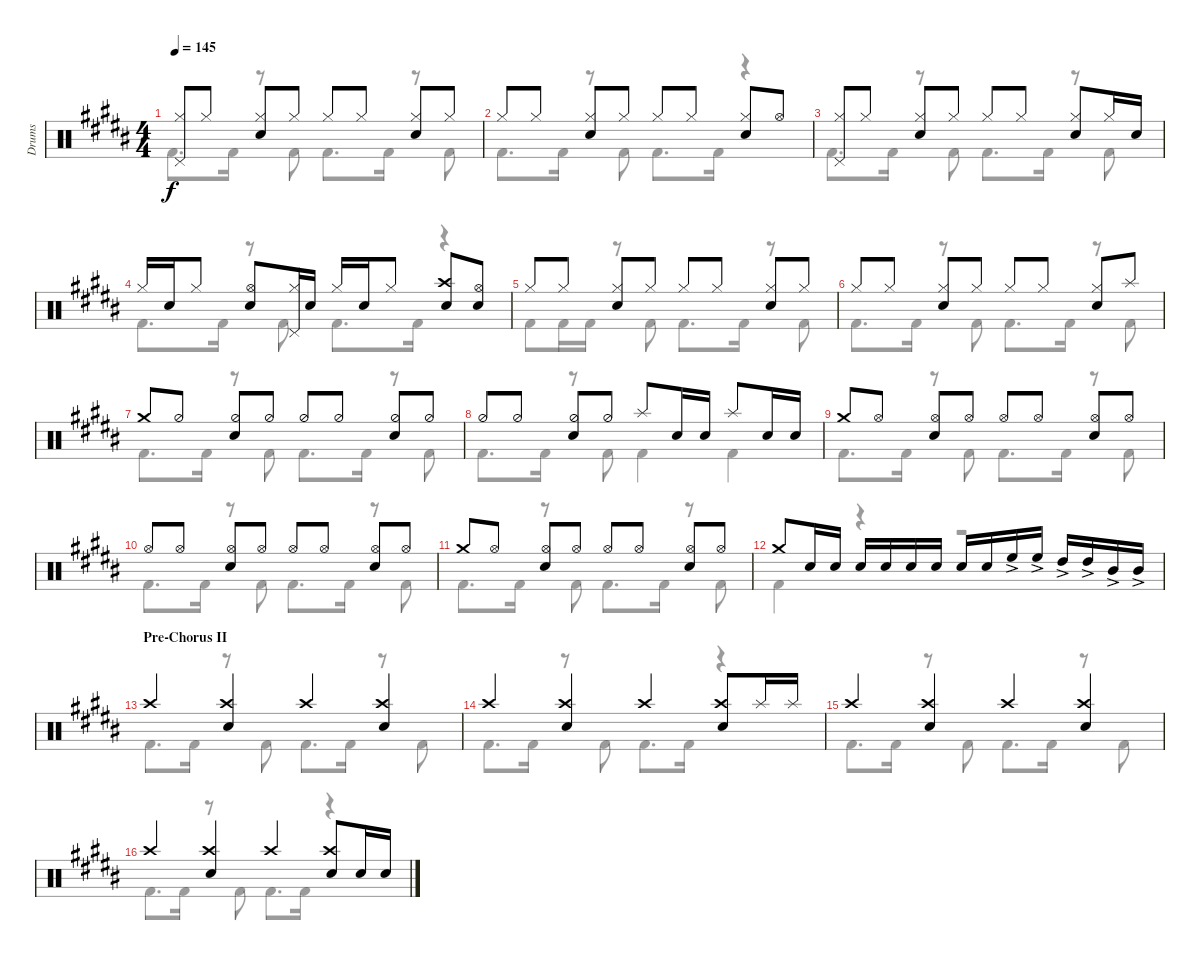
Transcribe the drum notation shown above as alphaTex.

\defaultSystemsLayout 4
\bracketExtendMode groupsimilarinstruments
\otherSystemsTrackNameOrientation horizontal
\track ("Drumkit" "Drums") {multiBarRest instrument percussion}
\staff {score}
\articulation defaults
\voice
\ts (4 4)
\tempo 145
\clef neutral
\ks b
("Hi-Hat (closed)"{acc forcenatural} "Pedal Hi-Hat (hit)"{acc forcenatural}).8{dy f} "Hi-Hat (closed)"{acc forcenatural}.8 ("Hi-Hat (closed)"{acc forcenatural} "Snare (hit) 2"{acc forcenatural}).8 "Hi-Hat (closed)"{acc forcenatural}.8 "Hi-Hat (closed)"{acc forcenatural}.8 "Hi-Hat (closed)"{acc forcenatural}.8 ("Hi-Hat (closed)"{acc forcenatural} "Snare (hit) 2"{acc forcenatural}).8 "Hi-Hat (closed)"{acc forcenatural}.8 |
"Hi-Hat (closed)"{acc forcenatural}.8 "Hi-Hat (closed)"{acc forcenatural}.8 ("Hi-Hat (closed)"{acc forcenatural} "Snare (hit) 2"{acc forcenatural}).8 "Hi-Hat (closed)"{acc forcenatural}.8 "Hi-Hat (closed)"{acc forcenatural}.8 "Hi-Hat (closed)"{acc forcenatural}.8 ("Hi-Hat (closed)"{acc forcenatural} "Snare (hit) 2"{acc forcenatural}).8 "Hi-Hat (open)"{acc forcenatural}.8 |
("Hi-Hat (closed)"{acc forcenatural} "Pedal Hi-Hat (hit)"{acc forcenatural}).8 "Hi-Hat (closed)"{acc forcenatural}.8 ("Hi-Hat (closed)"{acc forcenatural} "Snare (hit) 2"{acc forcenatural}).8 "Hi-Hat (closed)"{acc forcenatural}.8 "Hi-Hat (closed)"{acc forcenatural}.8 "Hi-Hat (closed)"{acc forcenatural}.8 ("Hi-Hat (closed)"{acc forcenatural} "Snare (hit) 2"{acc forcenatural}).8 "Hi-Hat (closed)"{acc forcenatural}.16 "Snare (hit) 2"{acc forcenatural}.16 |
"Hi-Hat (closed)"{acc forcenatural}.16 "Snare (hit) 2"{acc forcenatural}.16 "Hi-Hat (closed)"{acc forcenatural}.8 ("Snare (hit) 2"{acc forcenatural} "Hi-Hat (open)"{acc forcenatural}).8 ("Hi-Hat (closed)"{acc forcenatural} "Pedal Hi-Hat (hit)"{acc forcenatural}).16 "Snare (hit) 2"{acc forcenatural}.16 "Hi-Hat (closed)"{acc forcenatural}.16 "Snare (hit) 2"{acc forcenatural}.16 "Hi-Hat (closed)"{acc forcenatural}.8 ("Snare (hit) 2"{acc forcenatural} "Crash high (hit)"{acc forcenatural}).8 ("Snare (hit) 2"{acc forcenatural} "Hi-Hat (open)"{acc forcenatural}).8 |
"Hi-Hat (closed)"{acc forcenatural}.8 "Hi-Hat (closed)"{acc forcenatural}.8 ("Hi-Hat (closed)"{acc forcenatural} "Snare (hit) 2"{acc forcenatural}).8 "Hi-Hat (closed)"{acc forcenatural}.8 "Hi-Hat (closed)"{acc forcenatural}.8 "Hi-Hat (closed)"{acc forcenatural}.8 ("Hi-Hat (closed)"{acc forcenatural} "Snare (hit) 2"{acc forcenatural}).8 "Hi-Hat (closed)"{acc forcenatural}.8 |
"Hi-Hat (closed)"{acc forcenatural}.8 "Hi-Hat (closed)"{acc forcenatural}.8 ("Hi-Hat (closed)"{acc forcenatural} "Snare (hit) 2"{acc forcenatural}).8 "Hi-Hat (closed)"{acc forcenatural}.8 "Hi-Hat (closed)"{acc forcenatural}.8 "Hi-Hat (closed)"{acc forcenatural}.8 ("Hi-Hat (closed)"{acc forcenatural} "Snare (hit) 2"{acc forcenatural}).8 "Splash (hit)"{acc forcenatural}.8 |
"Crash medium (hit)"{acc forcenatural}.8 "Hi-Hat (half)"{acc forcenatural}.8 ("Hi-Hat (half)"{acc forcenatural} "Snare (hit) 2"{acc forcenatural}).8 "Hi-Hat (half)"{acc forcenatural}.8 "Hi-Hat (half)"{acc forcenatural}.8 "Hi-Hat (half)"{acc forcenatural}.8 ("Hi-Hat (half)"{acc forcenatural} "Snare (hit) 2"{acc forcenatural}).8 "Hi-Hat (half)"{acc forcenatural}.8 |
"Hi-Hat (half)"{acc forcenatural}.8 "Hi-Hat (half)"{acc forcenatural}.8 ("Hi-Hat (half)"{acc forcenatural} "Snare (hit) 2"{acc forcenatural}).8 "Hi-Hat (half)"{acc forcenatural}.8 "Splash (hit)"{acc forcenatural}.8 "Snare (hit) 2"{acc forcenatural}.16 "Snare (hit) 2"{acc forcenatural}.16 "Splash (hit)"{acc forcenatural}.8 "Snare (hit) 2"{acc forcenatural}.16 "Snare (hit) 2"{acc forcenatural}.16 |
"Crash medium (hit)"{acc forcenatural}.8 "Hi-Hat (open)"{acc forcenatural}.8 ("Hi-Hat (open)"{acc forcenatural} "Snare (hit) 2"{acc forcenatural}).8 "Hi-Hat (open)"{acc forcenatural}.8 "Hi-Hat (open)"{acc forcenatural}.8 "Hi-Hat (open)"{acc forcenatural}.8 ("Hi-Hat (open)"{acc forcenatural} "Snare (hit) 2"{acc forcenatural}).8 "Hi-Hat (open)"{acc forcenatural}.8 |
"Hi-Hat (open)"{acc forcenatural}.8 "Hi-Hat (open)"{acc forcenatural}.8 ("Hi-Hat (open)"{acc forcenatural} "Snare (hit) 2"{acc forcenatural}).8 "Hi-Hat (open)"{acc forcenatural}.8 "Hi-Hat (open)"{acc forcenatural}.8 "Hi-Hat (open)"{acc forcenatural}.8 ("Hi-Hat (open)"{acc forcenatural} "Snare (hit) 2"{acc forcenatural}).8 "Hi-Hat (open)"{acc forcenatural}.8 |
"Crash medium (hit)"{acc forcenatural}.8 "Hi-Hat (open)"{acc forcenatural}.8 ("Hi-Hat (open)"{acc forcenatural} "Snare (hit) 2"{acc forcenatural}).8 "Hi-Hat (open)"{acc forcenatural}.8 "Hi-Hat (open)"{acc forcenatural}.8 "Hi-Hat (open)"{acc forcenatural}.8 ("Hi-Hat (open)"{acc forcenatural} "Snare (hit) 2"{acc forcenatural}).8 "Hi-Hat (open)"{acc forcenatural}.8 |
"Crash medium (hit)"{acc forcenatural}.8 "Snare (hit) 2"{acc forcenatural}.16 "Snare (hit) 2"{acc forcenatural}.16 "Snare (hit) 2"{acc forcenatural}.16 "Snare (hit) 2"{acc forcenatural}.16 "Snare (hit) 2"{acc forcenatural}.16 "Snare (hit) 2"{acc forcenatural}.16 "Snare (hit) 2"{acc forcenatural}.16 "Snare (hit) 2"{acc forcenatural}.16 "High Floor Tom (hit)"{ac acc forcenatural}.16 "High Floor Tom (hit)"{ac acc forcenatural}.16 "High Tom (hit)"{ac acc forcenatural}.16 "High Tom (hit)"{ac acc forcenatural}.16 "Mid Tom (hit)"{ac acc forcenatural}.16 "Mid Tom (hit)"{ac acc forcenatural}.16 |
\section ("" "Pre-Chorus II")
"Crash high (hit)"{acc forcenatural}.4 ("Snare (hit) 2"{acc forcenatural} "Crash high (hit)"{acc forcenatural}).4 "Crash high (hit)"{acc forcenatural}.4 ("Snare (hit) 2"{acc forcenatural} "Crash high (hit)"{acc forcenatural}).4 |
"Crash high (hit)"{acc forcenatural}.4 ("Snare (hit) 2"{acc forcenatural} "Crash high (hit)"{acc forcenatural}).4 "Crash high (hit)"{acc forcenatural}.4 ("Snare (hit) 2"{acc forcenatural} "Crash high (hit)"{acc forcenatural}).8 "Splash (hit)"{acc forcenatural}.16 "Splash (hit)"{acc forcenatural}.16 |
"Crash high (hit)"{acc forcenatural}.4 ("Snare (hit) 2"{acc forcenatural} "Crash high (hit)"{acc forcenatural}).4 "Crash high (hit)"{acc forcenatural}.4 ("Snare (hit) 2"{acc forcenatural} "Crash high (hit)"{acc forcenatural}).4 |
"Crash high (hit)"{acc forcenatural}.4 ("Snare (hit) 2"{acc forcenatural} "Crash high (hit)"{acc forcenatural}).4 "Crash high (hit)"{acc forcenatural}.4 ("Snare (hit) 2"{acc forcenatural} "Crash high (hit)"{acc forcenatural}).8 "Snare (hit) 2"{acc forcenatural}.16 "Snare (hit) 2"{acc forcenatural}.16
\voice
\clef neutral
\ottava regular
\simile none
\ks b "Kick (hit) 2"{acc forcenatural}.8{d dy f} "Kick (hit) 2"{acc forcenatural}.16
r.8 "Kick (hit) 2"{acc forcenatural}.8 "Kick (hit) 2"{acc forcenatural}.8{d} "Kick (hit) 2"{acc forcenatural}.16 r.8 "Kick (hit) 2"{acc forcenatural}.8 |
"Kick (hit) 2"{acc forcenatural}.8{d} "Kick (hit) 2"{acc forcenatural}.16 r.8 "Kick (hit) 2"{acc forcenatural}.8 "Kick (hit) 2"{acc forcenatural}.8{d} "Kick (hit) 2"{acc forcenatural}.16 r.4 |
"Kick (hit) 2"{acc forcenatural}.8{d} "Kick (hit) 2"{acc forcenatural}.16 r.8 "Kick (hit) 2"{acc forcenatural}.8 "Kick (hit) 2"{acc forcenatural}.8{d} "Kick (hit) 2"{acc forcenatural}.16 r.8 "Kick (hit) 2"{acc forcenatural}.8 |
"Kick (hit) 2"{acc forcenatural}.8{d} "Kick (hit) 2"{acc forcenatural}.16 r.8 "Kick (hit) 2"{acc forcenatural}.8 "Kick (hit) 2"{acc forcenatural}.8{d} "Kick (hit) 2"{acc forcenatural}.16 r.4 |
"Kick (hit) 2"{acc forcenatural}.8 "Kick (hit) 2"{acc forcenatural}.16 "Kick (hit) 2"{acc forcenatural}.16 r.8 "Kick (hit) 2"{acc forcenatural}.8 "Kick (hit) 2"{acc forcenatural}.8{d} "Kick (hit) 2"{acc forcenatural}.16 r.8 "Kick (hit) 2"{acc forcenatural}.8 |
"Kick (hit) 2"{acc forcenatural}.8{d} "Kick (hit) 2"{acc forcenatural}.16 r.8 "Kick (hit) 2"{acc forcenatural}.8 "Kick (hit) 2"{acc forcenatural}.8{d} "Kick (hit) 2"{acc forcenatural}.16 r.8 "Kick (hit) 2"{acc forcenatural}.8 |
"Kick (hit) 2"{acc forcenatural}.8{d} "Kick (hit) 2"{acc forcenatural}.16 r.8 "Kick (hit) 2"{acc forcenatural}.8 "Kick (hit) 2"{acc forcenatural}.8{d} "Kick (hit) 2"{acc forcenatural}.16 r.8 "Kick (hit) 2"{acc forcenatural}.8 |
"Kick (hit) 2"{acc forcenatural}.8{d} "Kick (hit) 2"{acc forcenatural}.16 r.8 "Kick (hit) 2"{acc forcenatural}.8 "Kick (hit) 2"{acc forcenatural}.4 "Kick (hit) 2"{acc forcenatural}.4 |
"Kick (hit) 2"{acc forcenatural}.8{d} "Kick (hit) 2"{acc forcenatural}.16 r.8 "Kick (hit) 2"{acc forcenatural}.8 "Kick (hit) 2"{acc forcenatural}.8{d} "Kick (hit) 2"{acc forcenatural}.16 r.8 "Kick (hit) 2"{acc forcenatural}.8 |
"Kick (hit) 2"{acc forcenatural}.8{d} "Kick (hit) 2"{acc forcenatural}.16 r.8 "Kick (hit) 2"{acc forcenatural}.8 "Kick (hit) 2"{acc forcenatural}.8{d} "Kick (hit) 2"{acc forcenatural}.16 r.8 "Kick (hit) 2"{acc forcenatural}.8 |
"Kick (hit) 2"{acc forcenatural}.8{d} "Kick (hit) 2"{acc forcenatural}.16 r.8 "Kick (hit) 2"{acc forcenatural}.8 "Kick (hit) 2"{acc forcenatural}.8{d} "Kick (hit) 2"{acc forcenatural}.16 r.8 "Kick (hit) 2"{acc forcenatural}.8 |
"Kick (hit) 2"{acc forcenatural}.4 r.4 r.2 |
"Kick (hit) 2"{acc forcenatural}.8{d} "Kick (hit) 2"{acc forcenatural}.16 r.8 "Kick (hit) 2"{acc forcenatural}.8 "Kick (hit) 2"{acc forcenatural}.8{d} "Kick (hit) 2"{acc forcenatural}.16 r.8 "Kick (hit) 2"{acc forcenatural}.8 |
"Kick (hit) 2"{acc forcenatural}.8{d} "Kick (hit) 2"{acc forcenatural}.16 r.8 "Kick (hit) 2"{acc forcenatural}.8 "Kick (hit) 2"{acc forcenatural}.8{d} "Kick (hit) 2"{acc forcenatural}.16 r.4 |
"Kick (hit) 2"{acc forcenatural}.8{d} "Kick (hit) 2"{acc forcenatural}.16 r.8 "Kick (hit) 2"{acc forcenatural}.8 "Kick (hit) 2"{acc forcenatural}.8{d} "Kick (hit) 2"{acc forcenatural}.16 r.8 "Kick (hit) 2"{acc forcenatural}.8 |
"Kick (hit) 2"{acc forcenatural}.8{d} "Kick (hit) 2"{acc forcenatural}.16 r.8 "Kick (hit) 2"{acc forcenatural}.8 "Kick (hit) 2"{acc forcenatural}.8{d} "Kick (hit) 2"{acc forcenatural}.16 r.4
